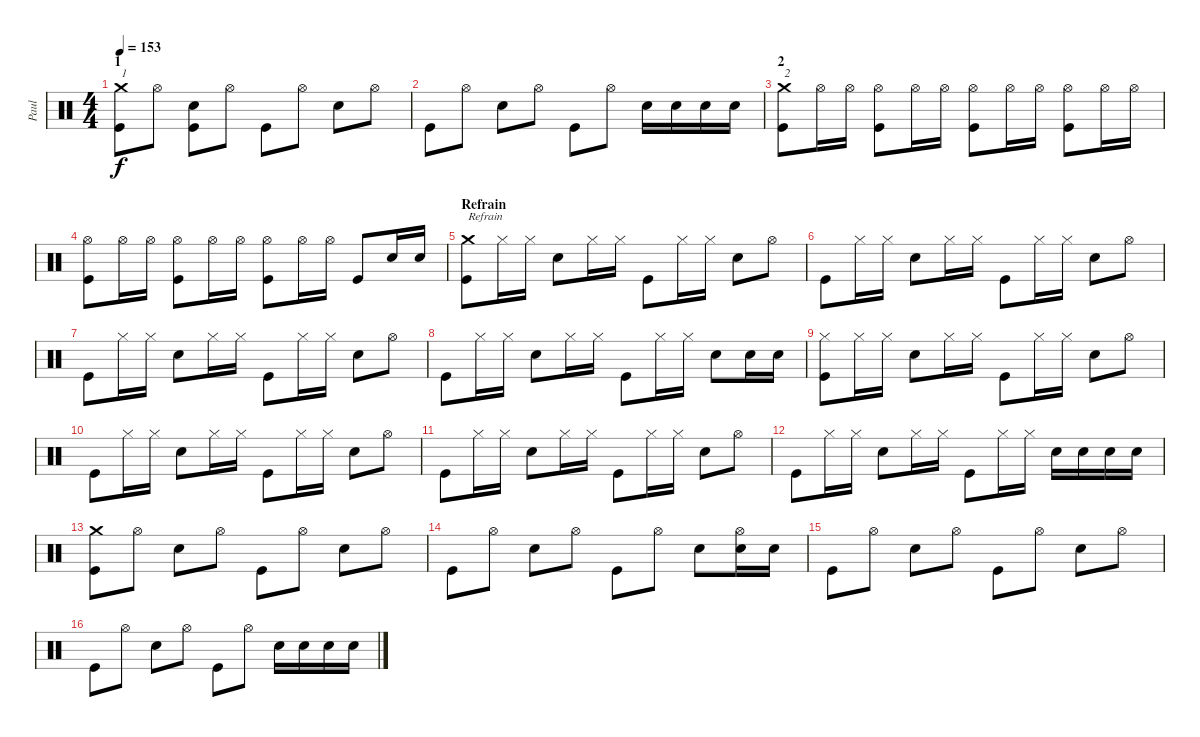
\track ("Paul" "Paul") {instrument percussion}
\staff {score}
\articulation defaults
\ts (4 4)
\section ("" "1")
\tempo 153
\clef neutral
\ks c
("Kick (hit)" "Crash medium (hit)").8{txt "1" dy f} "Hi-Hat (open)".8 ("Electric Snare (hit)" "Kick (hit)").8 "Hi-Hat (open)".8 "Kick (hit)".8 "Hi-Hat (open)".8 "Electric Snare (hit)".8 "Hi-Hat (open)".8 |
"Kick (hit)".8 "Hi-Hat (open)".8 "Electric Snare (hit)".8 "Hi-Hat (open)".8 "Kick (hit)".8 "Hi-Hat (open)".8 "Electric Snare (hit)".16 "Electric Snare (hit)".16 "Electric Snare (hit)".16 "Electric Snare (hit)".16 |
\section ("" "2")
("Kick (hit)" "Crash medium (hit)").8{txt "2"} "Hi-Hat (open)".16 "Hi-Hat (open)".16 ("Hi-Hat (open)" "Kick (hit)").8 "Hi-Hat (open)".16 "Hi-Hat (open)".16 ("Kick (hit)" "Hi-Hat (open)").8 "Hi-Hat (open)".16 "Hi-Hat (open)".16 ("Hi-Hat (open)" "Kick (hit)").8 "Hi-Hat (open)".16 "Hi-Hat (open)".16 |
("Kick (hit)" "Hi-Hat (open)").8 "Hi-Hat (open)".16 "Hi-Hat (open)".16 ("Hi-Hat (open)" "Kick (hit)").8 "Hi-Hat (open)".16 "Hi-Hat (open)".16 ("Kick (hit)" "Hi-Hat (open)").8 "Hi-Hat (open)".16 "Hi-Hat (open)".16 "Kick (hit)".8 "Electric Snare (hit)".16 "Electric Snare (hit)".16 |
\section ("" "Refrain")
("Kick (hit)" "Crash medium (hit)").8{txt "Refrain"} "Hi-Hat (closed)".16 "Hi-Hat (closed)".16 "Electric Snare (hit)".8 "Hi-Hat (closed)".16 "Hi-Hat (closed)".16 "Kick (hit)".8 "Hi-Hat (closed)".16 "Hi-Hat (closed)".16 "Electric Snare (hit)".8 "Hi-Hat (open)".8 |
"Kick (hit)".8 "Hi-Hat (closed)".16 "Hi-Hat (closed)".16 "Electric Snare (hit)".8 "Hi-Hat (closed)".16 "Hi-Hat (closed)".16 "Kick (hit)".8 "Hi-Hat (closed)".16 "Hi-Hat (closed)".16 "Electric Snare (hit)".8 "Hi-Hat (open)".8 |
"Kick (hit)".8 "Hi-Hat (closed)".16 "Hi-Hat (closed)".16 "Electric Snare (hit)".8 "Hi-Hat (closed)".16 "Hi-Hat (closed)".16 "Kick (hit)".8 "Hi-Hat (closed)".16 "Hi-Hat (closed)".16 "Electric Snare (hit)".8 "Hi-Hat (open)".8 |
"Kick (hit)".8 "Hi-Hat (closed)".16 "Hi-Hat (closed)".16 "Electric Snare (hit)".8 "Hi-Hat (closed)".16 "Hi-Hat (closed)".16 "Kick (hit)".8 "Hi-Hat (closed)".16 "Hi-Hat (closed)".16 "Electric Snare (hit)".8 "Electric Snare (hit)".16 "Electric Snare (hit)".16 |
("Kick (hit)" "Hi-Hat (closed)").8 "Hi-Hat (closed)".16 "Hi-Hat (closed)".16 "Electric Snare (hit)".8 "Hi-Hat (closed)".16 "Hi-Hat (closed)".16 "Kick (hit)".8 "Hi-Hat (closed)".16 "Hi-Hat (closed)".16 "Electric Snare (hit)".8 "Hi-Hat (open)".8 |
"Kick (hit)".8 "Hi-Hat (closed)".16 "Hi-Hat (closed)".16 "Electric Snare (hit)".8 "Hi-Hat (closed)".16 "Hi-Hat (closed)".16 "Kick (hit)".8 "Hi-Hat (closed)".16 "Hi-Hat (closed)".16 "Electric Snare (hit)".8 "Hi-Hat (open)".8 |
"Kick (hit)".8 "Hi-Hat (closed)".16 "Hi-Hat (closed)".16 "Electric Snare (hit)".8 "Hi-Hat (closed)".16 "Hi-Hat (closed)".16 "Kick (hit)".8 "Hi-Hat (closed)".16 "Hi-Hat (closed)".16 "Electric Snare (hit)".8 "Hi-Hat (open)".8 |
"Kick (hit)".8 "Hi-Hat (closed)".16 "Hi-Hat (closed)".16 "Electric Snare (hit)".8 "Hi-Hat (closed)".16 "Hi-Hat (closed)".16 "Kick (hit)".8 "Hi-Hat (closed)".16 "Hi-Hat (closed)".16 "Electric Snare (hit)".16 "Electric Snare (hit)".16 "Electric Snare (hit)".16 "Electric Snare (hit)".16 |
("Kick (hit)" "Crash medium (hit)").8 "Hi-Hat (open)".8 "Electric Snare (hit)".8 "Hi-Hat (open)".8 "Kick (hit)".8 "Hi-Hat (open)".8 "Electric Snare (hit)".8 "Hi-Hat (open)".8 |
"Kick (hit)".8 "Hi-Hat (open)".8 "Electric Snare (hit)".8 "Hi-Hat (open)".8 "Kick (hit)".8 "Hi-Hat (open)".8 "Electric Snare (hit)".8 ("Hi-Hat (open)" "Electric Snare (hit)").16 "Electric Snare (hit)".16 |
"Kick (hit)".8 "Hi-Hat (open)".8 "Electric Snare (hit)".8 "Hi-Hat (open)".8 "Kick (hit)".8 "Hi-Hat (open)".8 "Electric Snare (hit)".8 "Hi-Hat (open)".8 |
"Kick (hit)".8 "Hi-Hat (open)".8 "Electric Snare (hit)".8 "Hi-Hat (open)".8 "Kick (hit)".8 "Hi-Hat (open)".8 "Electric Snare (hit)".16 "Electric Snare (hit)".16 "Electric Snare (hit)".16 "Electric Snare (hit)".16
